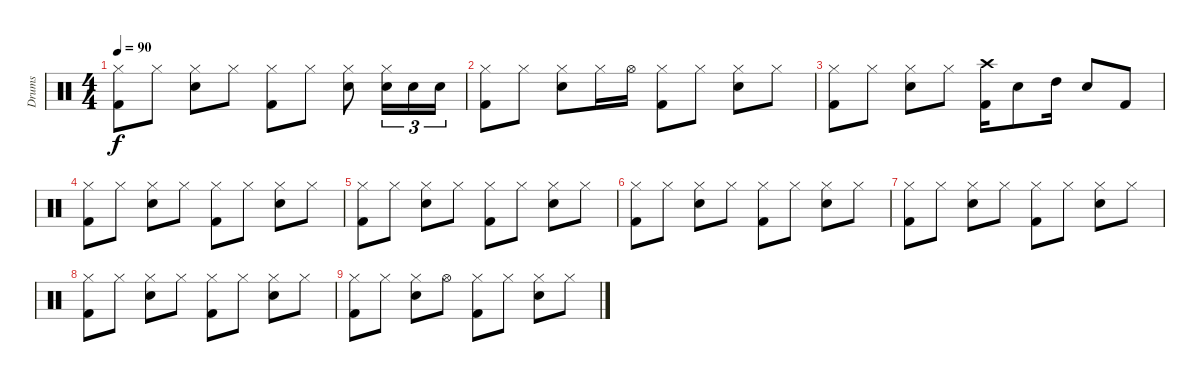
\track ("Drums" "Drums") {instrument percussion}
\staff {score}
\articulation defaults
\ts (4 4)
\tempo 90
\clef neutral
\ks c
("Hi-Hat (closed)" "Kick (hit) 2").8{dy f} "Hi-Hat (closed)".8 ("Hi-Hat (closed)" "Electric Snare (hit)").8 "Hi-Hat (closed)".8 ("Hi-Hat (closed)" "Kick (hit) 2").8 "Hi-Hat (closed)".8 ("Hi-Hat (closed)" "Electric Snare (hit)").8 ("Hi-Hat (closed)" "Electric Snare (hit)").16{tu (3 2)} "Electric Snare (hit)".16{tu (3 2)} "Electric Snare (hit)".16{tu (3 2)} |
("Hi-Hat (closed)" "Kick (hit) 2").8 "Hi-Hat (closed)".8 ("Hi-Hat (closed)" "Electric Snare (hit)").8 "Hi-Hat (closed)".16 "Hi-Hat (open)".16 ("Hi-Hat (closed)" "Kick (hit) 2").8 "Hi-Hat (closed)".8 ("Hi-Hat (closed)" "Electric Snare (hit)").8 "Hi-Hat (closed)".8 |
("Hi-Hat (closed)" "Kick (hit) 2").8 "Hi-Hat (closed)".8 ("Hi-Hat (closed)" "Electric Snare (hit)").8 "Hi-Hat (closed)".8 ("Crash high (hit)" "Kick (hit) 2").16 "Electric Snare (hit)".8 "High Tom (hit)".16 "Electric Snare (hit)".8 "Kick (hit) 2".8 |
("Hi-Hat (closed)" "Kick (hit) 2").8 "Hi-Hat (closed)".8 ("Hi-Hat (closed)" "Electric Snare (hit)").8 "Hi-Hat (closed)".8 ("Hi-Hat (closed)" "Kick (hit) 2").8 "Hi-Hat (closed)".8 ("Hi-Hat (closed)" "Electric Snare (hit)").8 "Hi-Hat (closed)".8 |
("Hi-Hat (closed)" "Kick (hit) 2").8{volume 10} "Hi-Hat (closed)".8 ("Hi-Hat (closed)" "Electric Snare (hit)").8 "Hi-Hat (closed)".8 ("Hi-Hat (closed)" "Kick (hit) 2").8 "Hi-Hat (closed)".8 ("Hi-Hat (closed)" "Electric Snare (hit)").8 "Hi-Hat (closed)".8 |
("Hi-Hat (closed)" "Kick (hit) 2").8 "Hi-Hat (closed)".8 ("Hi-Hat (closed)" "Electric Snare (hit)").8 "Hi-Hat (closed)".8 ("Hi-Hat (closed)" "Kick (hit) 2").8 "Hi-Hat (closed)".8 ("Hi-Hat (closed)" "Electric Snare (hit)").8 "Hi-Hat (closed)".8 |
("Hi-Hat (closed)" "Kick (hit) 2").8{volume 5} "Hi-Hat (closed)".8 ("Hi-Hat (closed)" "Electric Snare (hit)").8 "Hi-Hat (closed)".8 ("Hi-Hat (closed)" "Kick (hit) 2").8 "Hi-Hat (closed)".8 ("Hi-Hat (closed)" "Electric Snare (hit)").8 "Hi-Hat (closed)".8 |
("Hi-Hat (closed)" "Kick (hit) 2").8 "Hi-Hat (closed)".8 ("Hi-Hat (closed)" "Electric Snare (hit)").8 "Hi-Hat (closed)".8 ("Hi-Hat (closed)" "Kick (hit) 2").8 "Hi-Hat (closed)".8 ("Hi-Hat (closed)" "Electric Snare (hit)").8 "Hi-Hat (closed)".8 |
("Hi-Hat (closed)" "Kick (hit) 2").8{volume 0} "Hi-Hat (closed)".8 ("Hi-Hat (closed)" "Electric Snare (hit)").8 "Hi-Hat (open)".8 ("Hi-Hat (closed)" "Kick (hit) 2").8 "Hi-Hat (closed)".8 ("Hi-Hat (closed)" "Electric Snare (hit)").8 "Hi-Hat (closed)".8
